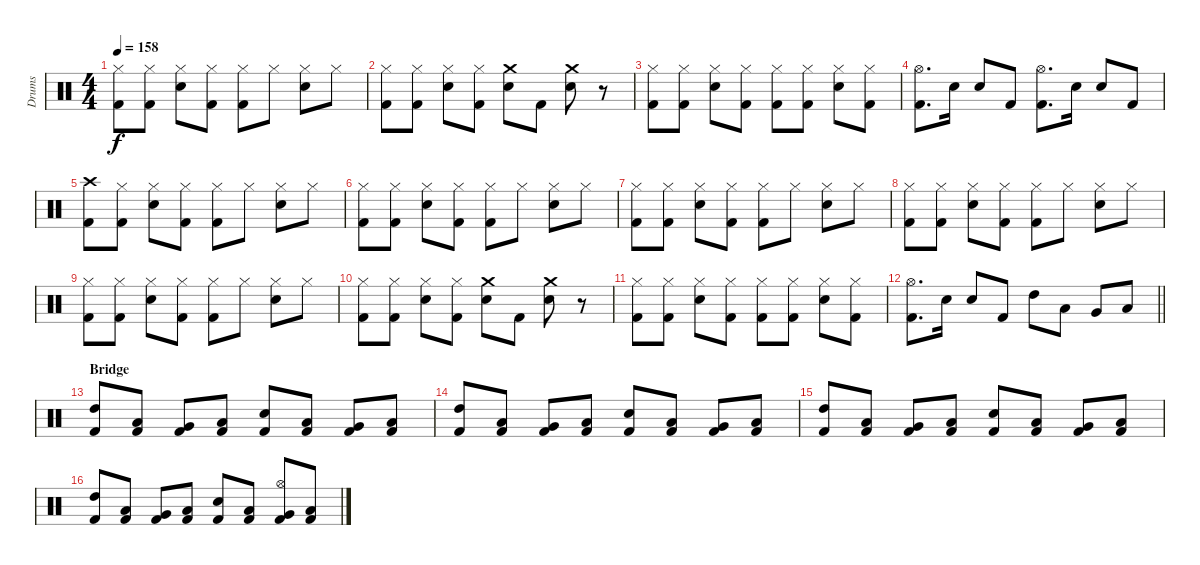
\track ("Drums" "Drums") {instrument percussion}
\staff {score}
\articulation defaults
\ts (4 4)
\tempo 158
\clef neutral
\ks c
("Hi-Hat (closed)" "Kick (hit) 2").8{dy f} ("Hi-Hat (closed)" "Kick (hit) 2").8 ("Hi-Hat (closed)" "Electric Snare (hit)").8 ("Hi-Hat (closed)" "Kick (hit) 2").8 ("Hi-Hat (closed)" "Kick (hit) 2").8 "Hi-Hat (closed)".8 ("Hi-Hat (closed)" "Electric Snare (hit)").8 "Hi-Hat (closed)".8 |
("Hi-Hat (closed)" "Kick (hit) 2").8 ("Hi-Hat (closed)" "Kick (hit) 2").8 ("Hi-Hat (closed)" "Electric Snare (hit)").8 ("Hi-Hat (closed)" "Kick (hit) 2").8 ("Crash medium (hit)" "Electric Snare (hit)").8 "Kick (hit) 2".8 ("Crash medium (hit)" "Electric Snare (hit)").8 r.8 |
("Hi-Hat (closed)" "Kick (hit) 2").8 ("Hi-Hat (closed)" "Kick (hit) 2").8 ("Hi-Hat (closed)" "Electric Snare (hit)").8 ("Hi-Hat (closed)" "Kick (hit) 2").8 ("Hi-Hat (closed)" "Kick (hit) 2").8 ("Hi-Hat (closed)" "Kick (hit) 2").8 ("Hi-Hat (closed)" "Electric Snare (hit)").8 ("Hi-Hat (closed)" "Kick (hit) 2").8 |
("Hi-Hat (open)" "Kick (hit) 2").8{d} "Electric Snare (hit)".16 "Electric Snare (hit)".8 "Kick (hit) 2".8 ("Hi-Hat (open)" "Kick (hit) 2").8{d} "Electric Snare (hit)".16 "Electric Snare (hit)".8 "Kick (hit) 2".8 |
("Crash high (hit)" "Kick (hit) 2").8 ("Hi-Hat (closed)" "Kick (hit) 2").8 ("Hi-Hat (closed)" "Electric Snare (hit)").8 ("Hi-Hat (closed)" "Kick (hit) 2").8 ("Hi-Hat (closed)" "Kick (hit) 2").8 "Hi-Hat (closed)".8 ("Hi-Hat (closed)" "Electric Snare (hit)").8 "Hi-Hat (closed)".8 |
("Hi-Hat (closed)" "Kick (hit) 2").8 ("Hi-Hat (closed)" "Kick (hit) 2").8 ("Hi-Hat (closed)" "Electric Snare (hit)").8 ("Hi-Hat (closed)" "Kick (hit) 2").8 ("Hi-Hat (closed)" "Kick (hit) 2").8 "Hi-Hat (closed)".8 ("Hi-Hat (closed)" "Electric Snare (hit)").8 "Hi-Hat (closed)".8 |
("Hi-Hat (closed)" "Kick (hit) 2").8 ("Hi-Hat (closed)" "Kick (hit) 2").8 ("Hi-Hat (closed)" "Electric Snare (hit)").8 ("Hi-Hat (closed)" "Kick (hit) 2").8 ("Hi-Hat (closed)" "Kick (hit) 2").8 "Hi-Hat (closed)".8 ("Hi-Hat (closed)" "Electric Snare (hit)").8 "Hi-Hat (closed)".8 |
("Hi-Hat (closed)" "Kick (hit) 2").8 ("Hi-Hat (closed)" "Kick (hit) 2").8 ("Hi-Hat (closed)" "Electric Snare (hit)").8 ("Hi-Hat (closed)" "Kick (hit) 2").8 ("Hi-Hat (closed)" "Kick (hit) 2").8 "Hi-Hat (closed)".8 ("Hi-Hat (closed)" "Electric Snare (hit)").8 "Hi-Hat (closed)".8 |
("Hi-Hat (closed)" "Kick (hit) 2").8 ("Hi-Hat (closed)" "Kick (hit) 2").8 ("Hi-Hat (closed)" "Electric Snare (hit)").8 ("Hi-Hat (closed)" "Kick (hit) 2").8 ("Hi-Hat (closed)" "Kick (hit) 2").8 "Hi-Hat (closed)".8 ("Hi-Hat (closed)" "Electric Snare (hit)").8 "Hi-Hat (closed)".8 |
("Hi-Hat (closed)" "Kick (hit) 2").8 ("Hi-Hat (closed)" "Kick (hit) 2").8 ("Hi-Hat (closed)" "Electric Snare (hit)").8 ("Hi-Hat (closed)" "Kick (hit) 2").8 ("Crash medium (hit)" "Electric Snare (hit)").8 "Kick (hit) 2".8 ("Crash medium (hit)" "Electric Snare (hit)").8 r.8 |
("Hi-Hat (closed)" "Kick (hit) 2").8 ("Hi-Hat (closed)" "Kick (hit) 2").8 ("Hi-Hat (closed)" "Electric Snare (hit)").8 ("Hi-Hat (closed)" "Kick (hit) 2").8 ("Hi-Hat (closed)" "Kick (hit) 2").8 ("Hi-Hat (closed)" "Kick (hit) 2").8 ("Hi-Hat (closed)" "Electric Snare (hit)").8 ("Hi-Hat (closed)" "Kick (hit) 2").8 |
\barLineRight lightlight
("Hi-Hat (open)" "Kick (hit) 2").8{d} "Electric Snare (hit)".16 "Electric Snare (hit)".8 "Kick (hit) 2".8 "High Tom (hit)".8 "Low Tom (hit)".8 "Very Low Tom (hit)".8 "Low Floor Tom (hit)".8 |
\section ("" "Bridge")
("High Tom (hit)" "Kick (hit) 2").8 ("Low Tom (hit)" "Kick (hit) 2").8 ("Very Low Tom (hit)" "Kick (hit) 2").8 ("Low Floor Tom (hit)" "Kick (hit) 2").8 ("Electric Snare (hit)" "Kick (hit) 2").8 ("Low Tom (hit)" "Kick (hit) 2").8 ("Very Low Tom (hit)" "Kick (hit) 2").8 ("Low Floor Tom (hit)" "Kick (hit) 2").8 |
("High Tom (hit)" "Kick (hit) 2").8 ("Low Tom (hit)" "Kick (hit) 2").8 ("Very Low Tom (hit)" "Kick (hit) 2").8 ("Low Floor Tom (hit)" "Kick (hit) 2").8 ("Electric Snare (hit)" "Kick (hit) 2").8 ("Low Tom (hit)" "Kick (hit) 2").8 ("Very Low Tom (hit)" "Kick (hit) 2").8 ("Low Floor Tom (hit)" "Kick (hit) 2").8 |
("High Tom (hit)" "Kick (hit) 2").8 ("Low Tom (hit)" "Kick (hit) 2").8 ("Very Low Tom (hit)" "Kick (hit) 2").8 ("Low Floor Tom (hit)" "Kick (hit) 2").8 ("Electric Snare (hit)" "Kick (hit) 2").8 ("Low Tom (hit)" "Kick (hit) 2").8 ("Very Low Tom (hit)" "Kick (hit) 2").8 ("Low Floor Tom (hit)" "Kick (hit) 2").8 |
("High Tom (hit)" "Kick (hit) 2").8 ("Low Tom (hit)" "Kick (hit) 2").8 ("Very Low Tom (hit)" "Kick (hit) 2").8 ("Low Floor Tom (hit)" "Kick (hit) 2").8 ("Electric Snare (hit)" "Kick (hit) 2").8 ("Low Tom (hit)" "Kick (hit) 2").8 ("Hi-Hat (open)" "Very Low Tom (hit)" "Kick (hit) 2").8 ("Low Floor Tom (hit)" "Kick (hit) 2").8
